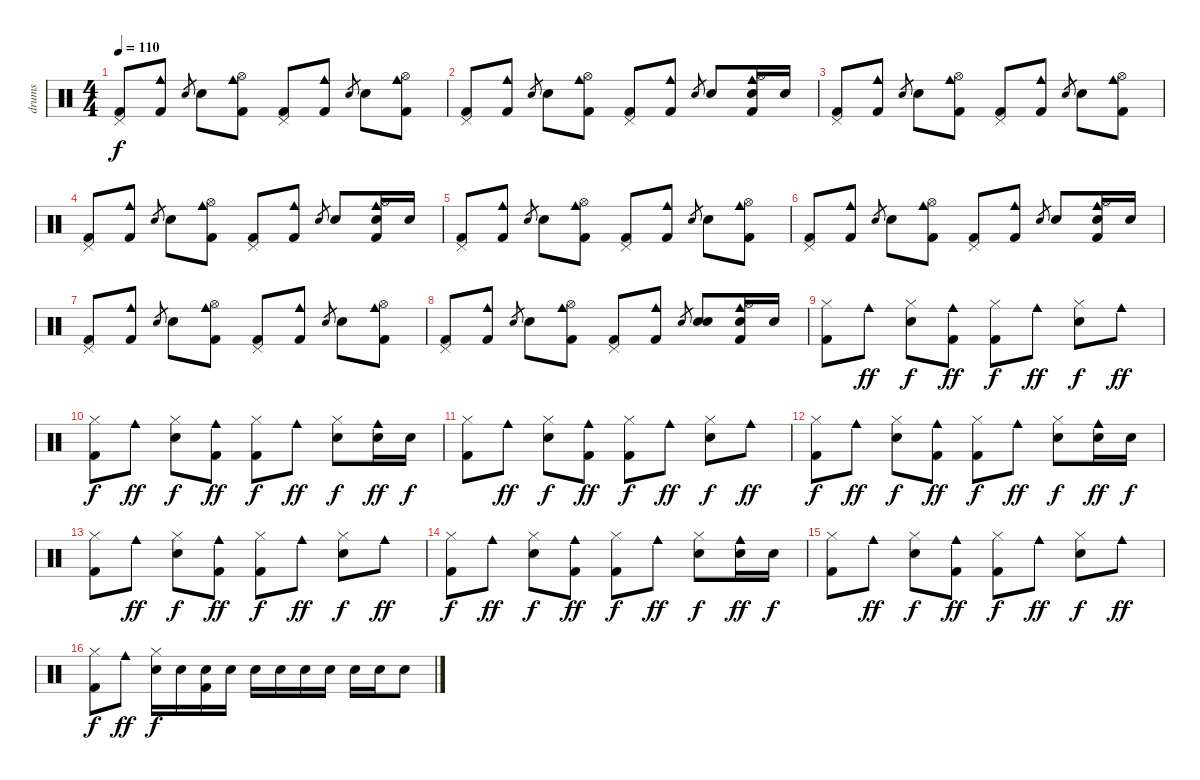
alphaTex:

\track ("drums" "drums") {instrument percussion}
\staff {score}
\articulation defaults
\ts (4 4)
\tempo 110
\clef neutral
\ks aminor
("Pedal Hi-Hat (hit)" "Kick (hit) 2").8{dy f} ("Cowbell medium (hit)" "Kick (hit) 2").8 "Hand Clap (hit)".8{gr} "Hand Clap (hit)".8 ("Hi-Hat (open)" "Cowbell medium (hit)" "Kick (hit) 2").8 ("Pedal Hi-Hat (hit)" "Kick (hit) 2").8 ("Cowbell medium (hit)" "Kick (hit) 2").8 "Hand Clap (hit)".8{gr} "Hand Clap (hit)".8 ("Hi-Hat (open)" "Cowbell medium (hit)" "Kick (hit) 2").8 |
("Pedal Hi-Hat (hit)" "Kick (hit) 2").8 ("Cowbell medium (hit)" "Kick (hit) 2").8 "Hand Clap (hit)".8{gr} "Hand Clap (hit)".8 ("Hi-Hat (open)" "Cowbell medium (hit)" "Kick (hit) 2").8 ("Pedal Hi-Hat (hit)" "Kick (hit) 2").8 ("Cowbell medium (hit)" "Kick (hit) 2").8 "Hand Clap (hit)".8{gr} "Hand Clap (hit)".8 ("Hi-Hat (open)" "Cowbell medium (hit)" "Snare (hit) 2" "Kick (hit) 2").16 "Snare (hit) 2".16 |
("Pedal Hi-Hat (hit)" "Kick (hit) 2").8 ("Cowbell medium (hit)" "Kick (hit) 2").8 "Hand Clap (hit)".8{gr} "Hand Clap (hit)".8 ("Hi-Hat (open)" "Cowbell medium (hit)" "Kick (hit) 2").8 ("Pedal Hi-Hat (hit)" "Kick (hit) 2").8 ("Cowbell medium (hit)" "Kick (hit) 2").8 "Hand Clap (hit)".8{gr} "Hand Clap (hit)".8 ("Hi-Hat (open)" "Cowbell medium (hit)" "Kick (hit) 2").8 |
("Pedal Hi-Hat (hit)" "Kick (hit) 2").8 ("Cowbell medium (hit)" "Kick (hit) 2").8 "Hand Clap (hit)".8{gr} "Hand Clap (hit)".8 ("Hi-Hat (open)" "Cowbell medium (hit)" "Kick (hit) 2").8 ("Pedal Hi-Hat (hit)" "Kick (hit) 2").8 ("Cowbell medium (hit)" "Kick (hit) 2").8 "Hand Clap (hit)".8{gr} "Hand Clap (hit)".8 ("Hi-Hat (open)" "Cowbell medium (hit)" "Snare (hit) 2" "Kick (hit) 2").16 "Snare (hit) 2".16 |
("Pedal Hi-Hat (hit)" "Kick (hit) 2").8 ("Cowbell medium (hit)" "Kick (hit) 2").8 "Hand Clap (hit)".8{gr} "Hand Clap (hit)".8 ("Hi-Hat (open)" "Cowbell medium (hit)" "Kick (hit) 2").8 ("Pedal Hi-Hat (hit)" "Kick (hit) 2").8 ("Cowbell medium (hit)" "Kick (hit) 2").8 "Hand Clap (hit)".8{gr} "Hand Clap (hit)".8 ("Hi-Hat (open)" "Cowbell medium (hit)" "Kick (hit) 2").8 |
("Pedal Hi-Hat (hit)" "Kick (hit) 2").8 ("Cowbell medium (hit)" "Kick (hit) 2").8 "Hand Clap (hit)".8{gr} "Hand Clap (hit)".8 ("Hi-Hat (open)" "Cowbell medium (hit)" "Kick (hit) 2").8 ("Pedal Hi-Hat (hit)" "Kick (hit) 2").8 ("Cowbell medium (hit)" "Kick (hit) 2").8 "Hand Clap (hit)".8{gr} "Hand Clap (hit)".8 ("Hi-Hat (open)" "Cowbell medium (hit)" "Snare (hit) 2" "Kick (hit) 2").16 "Snare (hit) 2".16 |
("Pedal Hi-Hat (hit)" "Kick (hit) 2").8 ("Cowbell medium (hit)" "Kick (hit) 2").8 "Hand Clap (hit)".8{gr} "Hand Clap (hit)".8 ("Hi-Hat (open)" "Cowbell medium (hit)" "Kick (hit) 2").8 ("Pedal Hi-Hat (hit)" "Kick (hit) 2").8 ("Cowbell medium (hit)" "Kick (hit) 2").8 "Hand Clap (hit)".8{gr} "Hand Clap (hit)".8 ("Hi-Hat (open)" "Cowbell medium (hit)" "Kick (hit) 2").8 |
("Pedal Hi-Hat (hit)" "Kick (hit) 2").8 ("Cowbell medium (hit)" "Kick (hit) 2").8 "Hand Clap (hit)".8{gr} "Hand Clap (hit)".8 ("Hi-Hat (open)" "Cowbell medium (hit)" "Kick (hit) 2").8 ("Pedal Hi-Hat (hit)" "Kick (hit) 2").8 ("Cowbell medium (hit)" "Kick (hit) 2").8 "Hand Clap (hit)".8{gr} ("Hand Clap (hit)" "Snare (hit) 2").8 ("Hi-Hat (open)" "Cowbell medium (hit)" "Snare (hit) 2" "Kick (hit) 2").16 "Snare (hit) 2".16 |
("Hi-Hat (closed)" "Kick (hit) 2").8 "Cowbell medium (hit)".8{dy ff} ("Hi-Hat (closed)" "Snare (hit) 2").8{dy f} ("Cowbell medium (hit)" "Kick (hit) 2").8{dy ff} ("Hi-Hat (closed)" "Kick (hit) 2").8{dy f} "Cowbell medium (hit)".8{dy ff} ("Hi-Hat (closed)" "Snare (hit) 2").8{dy f} "Cowbell medium (hit)".8{dy ff} |
("Hi-Hat (closed)" "Kick (hit) 2").8{dy f} "Cowbell medium (hit)".8{dy ff} ("Hi-Hat (closed)" "Snare (hit) 2").8{dy f} ("Cowbell medium (hit)" "Kick (hit) 2").8{dy ff} ("Hi-Hat (closed)" "Kick (hit) 2").8{dy f} "Cowbell medium (hit)".8{dy ff} ("Hi-Hat (closed)" "Snare (hit) 2").8{dy f} ("Cowbell medium (hit)" "Snare (hit) 2").16{dy ff} "Snare (hit) 2".16{dy f} |
("Hi-Hat (closed)" "Kick (hit) 2").8 "Cowbell medium (hit)".8{dy ff} ("Hi-Hat (closed)" "Snare (hit) 2").8{dy f} ("Cowbell medium (hit)" "Kick (hit) 2").8{dy ff} ("Hi-Hat (closed)" "Kick (hit) 2").8{dy f} "Cowbell medium (hit)".8{dy ff} ("Hi-Hat (closed)" "Snare (hit) 2").8{dy f} "Cowbell medium (hit)".8{dy ff} |
("Hi-Hat (closed)" "Kick (hit) 2").8{dy f} "Cowbell medium (hit)".8{dy ff} ("Hi-Hat (closed)" "Snare (hit) 2").8{dy f} ("Cowbell medium (hit)" "Kick (hit) 2").8{dy ff} ("Hi-Hat (closed)" "Kick (hit) 2").8{dy f} "Cowbell medium (hit)".8{dy ff} ("Hi-Hat (closed)" "Snare (hit) 2").8{dy f} ("Cowbell medium (hit)" "Snare (hit) 2").16{dy ff} "Snare (hit) 2".16{dy f} |
("Hi-Hat (closed)" "Kick (hit) 2").8 "Cowbell medium (hit)".8{dy ff} ("Hi-Hat (closed)" "Snare (hit) 2").8{dy f} ("Cowbell medium (hit)" "Kick (hit) 2").8{dy ff} ("Hi-Hat (closed)" "Kick (hit) 2").8{dy f} "Cowbell medium (hit)".8{dy ff} ("Hi-Hat (closed)" "Snare (hit) 2").8{dy f} "Cowbell medium (hit)".8{dy ff} |
("Hi-Hat (closed)" "Kick (hit) 2").8{dy f} "Cowbell medium (hit)".8{dy ff} ("Hi-Hat (closed)" "Snare (hit) 2").8{dy f} ("Cowbell medium (hit)" "Kick (hit) 2").8{dy ff} ("Hi-Hat (closed)" "Kick (hit) 2").8{dy f} "Cowbell medium (hit)".8{dy ff} ("Hi-Hat (closed)" "Snare (hit) 2").8{dy f} ("Cowbell medium (hit)" "Snare (hit) 2").16{dy ff} "Snare (hit) 2".16{dy f} |
("Hi-Hat (closed)" "Kick (hit) 2").8 "Cowbell medium (hit)".8{dy ff} ("Hi-Hat (closed)" "Snare (hit) 2").8{dy f} ("Cowbell medium (hit)" "Kick (hit) 2").8{dy ff} ("Hi-Hat (closed)" "Kick (hit) 2").8{dy f} "Cowbell medium (hit)".8{dy ff} ("Hi-Hat (closed)" "Snare (hit) 2").8{dy f} "Cowbell medium (hit)".8{dy ff} |
("Hi-Hat (closed)" "Kick (hit) 2").8{dy f} "Cowbell medium (hit)".8{dy ff} ("Hi-Hat (closed)" "Snare (hit) 2").16{dy f} "Snare (hit) 2".16 ("Snare (hit) 2" "Kick (hit) 2").16 "Snare (hit) 2".16 "Snare (hit) 2".16 "Snare (hit) 2".16 "Snare (hit) 2".16 "Snare (hit) 2".16 "Snare (hit) 2".16 "Snare (hit) 2".16 "Snare (hit) 2".8
